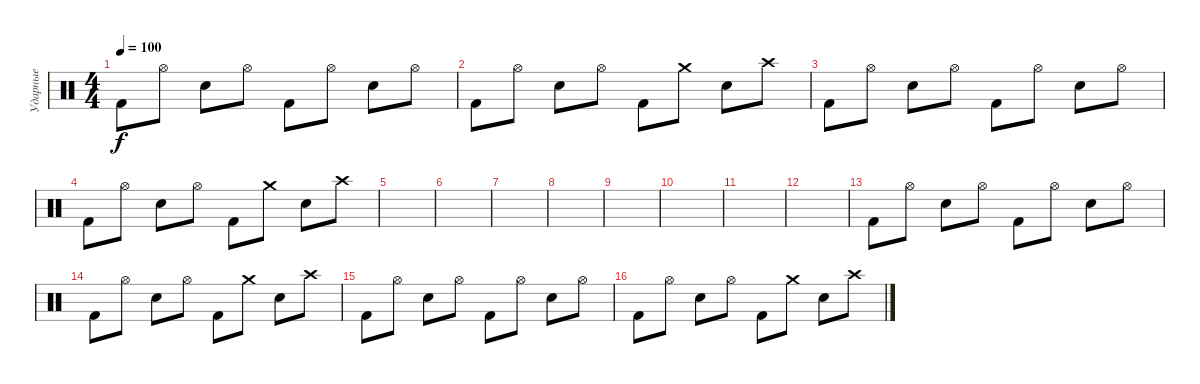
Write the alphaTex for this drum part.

\track ("Ударные" "Ударные") {instrument percussion}
\staff {score}
\articulation defaults
\ts (4 4)
\tempo 100
\clef neutral
\ks c "Kick (hit) 2".8{dy f} "Hi-Hat (open)".8 "Electric Snare (hit)".8 "Hi-Hat (open)".8 "Kick (hit) 2".8 "Hi-Hat (open)".8 "Electric Snare (hit)".8 "Hi-Hat (open)".8
|
"Kick (hit) 2".8 "Hi-Hat (open)".8 "Electric Snare (hit)".8 "Hi-Hat (open)".8 "Kick (hit) 2".8 "Crash medium (hit)".8 "Electric Snare (hit)".8 "Crash high (hit)".8 |
"Kick (hit) 2".8 "Hi-Hat (open)".8 "Electric Snare (hit)".8 "Hi-Hat (open)".8 "Kick (hit) 2".8 "Hi-Hat (open)".8 "Electric Snare (hit)".8 "Hi-Hat (open)".8 |
"Kick (hit) 2".8 "Hi-Hat (open)".8 "Electric Snare (hit)".8 "Hi-Hat (open)".8 "Kick (hit) 2".8 "Crash medium (hit)".8 "Electric Snare (hit)".8 "Crash high (hit)".8 |
|
|
|
|
|
|
|
|
"Kick (hit) 2".8 "Hi-Hat (open)".8 "Electric Snare (hit)".8 "Hi-Hat (open)".8 "Kick (hit) 2".8 "Hi-Hat (open)".8 "Electric Snare (hit)".8 "Hi-Hat (open)".8 |
"Kick (hit) 2".8 "Hi-Hat (open)".8 "Electric Snare (hit)".8 "Hi-Hat (open)".8 "Kick (hit) 2".8 "Crash medium (hit)".8 "Electric Snare (hit)".8 "Crash high (hit)".8 |
"Kick (hit) 2".8 "Hi-Hat (open)".8 "Electric Snare (hit)".8 "Hi-Hat (open)".8 "Kick (hit) 2".8 "Hi-Hat (open)".8 "Electric Snare (hit)".8 "Hi-Hat (open)".8 |
"Kick (hit) 2".8 "Hi-Hat (open)".8 "Electric Snare (hit)".8 "Hi-Hat (open)".8 "Kick (hit) 2".8 "Crash medium (hit)".8 "Electric Snare (hit)".8 "Crash high (hit)".8
